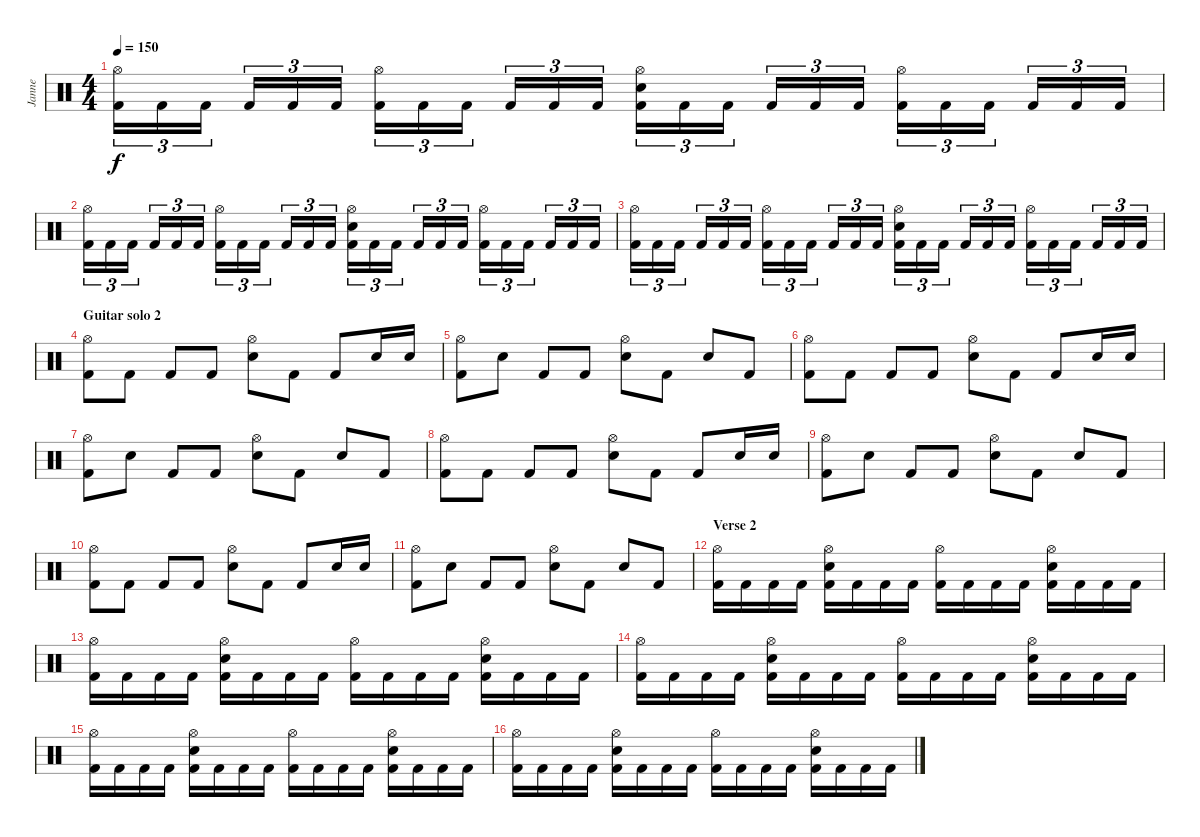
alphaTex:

\track ("Janne" "Janne") {instrument percussion}
\staff {score}
\articulation defaults
\ts (4 4)
\tempo 150
\clef neutral
\ks c
("Hi-Hat (open)" "Kick (hit) 2").16{tu (3 2) dy f} "Kick (hit) 2".16{tu (3 2)} "Kick (hit) 2".16{tu (3 2)} "Kick (hit) 2".16{tu (3 2)} "Kick (hit) 2".16{tu (3 2)} "Kick (hit) 2".16{tu (3 2)} ("Hi-Hat (open)" "Kick (hit) 2").16{tu (3 2)} "Kick (hit) 2".16{tu (3 2)} "Kick (hit) 2".16{tu (3 2)} "Kick (hit) 2".16{tu (3 2)} "Kick (hit) 2".16{tu (3 2)} "Kick (hit) 2".16{tu (3 2)} ("Hi-Hat (open)" "Electric Snare (hit)" "Kick (hit) 2").16{tu (3 2)} "Kick (hit) 2".16{tu (3 2)} "Kick (hit) 2".16{tu (3 2)} "Kick (hit) 2".16{tu (3 2)} "Kick (hit) 2".16{tu (3 2)} "Kick (hit) 2".16{tu (3 2)} ("Hi-Hat (open)" "Kick (hit) 2").16{tu (3 2)} "Kick (hit) 2".16{tu (3 2)} "Kick (hit) 2".16{tu (3 2)} "Kick (hit) 2".16{tu (3 2)} "Kick (hit) 2".16{tu (3 2)} "Kick (hit) 2".16{tu (3 2)} |
("Hi-Hat (open)" "Kick (hit) 2").16{tu (3 2)} "Kick (hit) 2".16{tu (3 2)} "Kick (hit) 2".16{tu (3 2)} "Kick (hit) 2".16{tu (3 2)} "Kick (hit) 2".16{tu (3 2)} "Kick (hit) 2".16{tu (3 2)} ("Hi-Hat (open)" "Kick (hit) 2").16{tu (3 2)} "Kick (hit) 2".16{tu (3 2)} "Kick (hit) 2".16{tu (3 2)} "Kick (hit) 2".16{tu (3 2)} "Kick (hit) 2".16{tu (3 2)} "Kick (hit) 2".16{tu (3 2)} ("Hi-Hat (open)" "Electric Snare (hit)" "Kick (hit) 2").16{tu (3 2)} "Kick (hit) 2".16{tu (3 2)} "Kick (hit) 2".16{tu (3 2)} "Kick (hit) 2".16{tu (3 2)} "Kick (hit) 2".16{tu (3 2)} "Kick (hit) 2".16{tu (3 2)} ("Hi-Hat (open)" "Kick (hit) 2").16{tu (3 2)} "Kick (hit) 2".16{tu (3 2)} "Kick (hit) 2".16{tu (3 2)} "Kick (hit) 2".16{tu (3 2)} "Kick (hit) 2".16{tu (3 2)} "Kick (hit) 2".16{tu (3 2)} |
("Hi-Hat (open)" "Kick (hit) 2").16{tu (3 2)} "Kick (hit) 2".16{tu (3 2)} "Kick (hit) 2".16{tu (3 2)} "Kick (hit) 2".16{tu (3 2)} "Kick (hit) 2".16{tu (3 2)} "Kick (hit) 2".16{tu (3 2)} ("Hi-Hat (open)" "Kick (hit) 2").16{tu (3 2)} "Kick (hit) 2".16{tu (3 2)} "Kick (hit) 2".16{tu (3 2)} "Kick (hit) 2".16{tu (3 2)} "Kick (hit) 2".16{tu (3 2)} "Kick (hit) 2".16{tu (3 2)} ("Hi-Hat (open)" "Electric Snare (hit)" "Kick (hit) 2").16{tu (3 2)} "Kick (hit) 2".16{tu (3 2)} "Kick (hit) 2".16{tu (3 2)} "Kick (hit) 2".16{tu (3 2)} "Kick (hit) 2".16{tu (3 2)} "Kick (hit) 2".16{tu (3 2)} ("Hi-Hat (open)" "Kick (hit) 2").16{tu (3 2)} "Kick (hit) 2".16{tu (3 2)} "Kick (hit) 2".16{tu (3 2)} "Kick (hit) 2".16{tu (3 2)} "Kick (hit) 2".16{tu (3 2)} "Kick (hit) 2".16{tu (3 2)} |
\section ("" "Guitar solo 2")
("Hi-Hat (open)" "Kick (hit) 2").8 "Kick (hit) 2".8 "Kick (hit) 2".8 "Kick (hit) 2".8 ("Hi-Hat (open)" "Electric Snare (hit)").8 "Kick (hit) 2".8 "Kick (hit) 2".8 "Electric Snare (hit)".16 "Electric Snare (hit)".16 |
("Hi-Hat (open)" "Kick (hit) 2").8 "Electric Snare (hit)".8 "Kick (hit) 2".8 "Kick (hit) 2".8 ("Hi-Hat (open)" "Electric Snare (hit)").8 "Kick (hit) 2".8 "Electric Snare (hit)".8 "Kick (hit) 2".8 |
("Hi-Hat (open)" "Kick (hit) 2").8 "Kick (hit) 2".8 "Kick (hit) 2".8 "Kick (hit) 2".8 ("Hi-Hat (open)" "Electric Snare (hit)").8 "Kick (hit) 2".8 "Kick (hit) 2".8 "Electric Snare (hit)".16 "Electric Snare (hit)".16 |
("Hi-Hat (open)" "Kick (hit) 2").8 "Electric Snare (hit)".8 "Kick (hit) 2".8 "Kick (hit) 2".8 ("Hi-Hat (open)" "Electric Snare (hit)").8 "Kick (hit) 2".8 "Electric Snare (hit)".8 "Kick (hit) 2".8 |
("Hi-Hat (open)" "Kick (hit) 2").8 "Kick (hit) 2".8 "Kick (hit) 2".8 "Kick (hit) 2".8 ("Hi-Hat (open)" "Electric Snare (hit)").8 "Kick (hit) 2".8 "Kick (hit) 2".8 "Electric Snare (hit)".16 "Electric Snare (hit)".16 |
("Hi-Hat (open)" "Kick (hit) 2").8 "Electric Snare (hit)".8 "Kick (hit) 2".8 "Kick (hit) 2".8 ("Hi-Hat (open)" "Electric Snare (hit)").8 "Kick (hit) 2".8 "Electric Snare (hit)".8 "Kick (hit) 2".8 |
("Hi-Hat (open)" "Kick (hit) 2").8 "Kick (hit) 2".8 "Kick (hit) 2".8 "Kick (hit) 2".8 ("Hi-Hat (open)" "Electric Snare (hit)").8 "Kick (hit) 2".8 "Kick (hit) 2".8 "Electric Snare (hit)".16 "Electric Snare (hit)".16 |
("Hi-Hat (open)" "Kick (hit) 2").8 "Electric Snare (hit)".8 "Kick (hit) 2".8 "Kick (hit) 2".8 ("Hi-Hat (open)" "Electric Snare (hit)").8 "Kick (hit) 2".8 "Electric Snare (hit)".8 "Kick (hit) 2".8 |
\section ("" "Verse 2")
("Hi-Hat (open)" "Kick (hit) 2").16 "Kick (hit) 2".16 "Kick (hit) 2".16 "Kick (hit) 2".16 ("Hi-Hat (open)" "Electric Snare (hit)" "Kick (hit) 2").16 "Kick (hit) 2".16 "Kick (hit) 2".16 "Kick (hit) 2".16 ("Hi-Hat (open)" "Kick (hit) 2").16 "Kick (hit) 2".16 "Kick (hit) 2".16 "Kick (hit) 2".16 ("Hi-Hat (open)" "Electric Snare (hit)" "Kick (hit) 2").16 "Kick (hit) 2".16 "Kick (hit) 2".16 "Kick (hit) 2".16 |
("Hi-Hat (open)" "Kick (hit) 2").16 "Kick (hit) 2".16 "Kick (hit) 2".16 "Kick (hit) 2".16 ("Hi-Hat (open)" "Electric Snare (hit)" "Kick (hit) 2").16 "Kick (hit) 2".16 "Kick (hit) 2".16 "Kick (hit) 2".16 ("Hi-Hat (open)" "Kick (hit) 2").16 "Kick (hit) 2".16 "Kick (hit) 2".16 "Kick (hit) 2".16 ("Hi-Hat (open)" "Electric Snare (hit)" "Kick (hit) 2").16 "Kick (hit) 2".16 "Kick (hit) 2".16 "Kick (hit) 2".16 |
("Hi-Hat (open)" "Kick (hit) 2").16 "Kick (hit) 2".16 "Kick (hit) 2".16 "Kick (hit) 2".16 ("Hi-Hat (open)" "Electric Snare (hit)" "Kick (hit) 2").16 "Kick (hit) 2".16 "Kick (hit) 2".16 "Kick (hit) 2".16 ("Hi-Hat (open)" "Kick (hit) 2").16 "Kick (hit) 2".16 "Kick (hit) 2".16 "Kick (hit) 2".16 ("Hi-Hat (open)" "Electric Snare (hit)" "Kick (hit) 2").16 "Kick (hit) 2".16 "Kick (hit) 2".16 "Kick (hit) 2".16 |
("Hi-Hat (open)" "Kick (hit) 2").16 "Kick (hit) 2".16 "Kick (hit) 2".16 "Kick (hit) 2".16 ("Hi-Hat (open)" "Electric Snare (hit)" "Kick (hit) 2").16 "Kick (hit) 2".16 "Kick (hit) 2".16 "Kick (hit) 2".16 ("Hi-Hat (open)" "Kick (hit) 2").16 "Kick (hit) 2".16 "Kick (hit) 2".16 "Kick (hit) 2".16 ("Hi-Hat (open)" "Electric Snare (hit)" "Kick (hit) 2").16 "Kick (hit) 2".16 "Kick (hit) 2".16 "Kick (hit) 2".16 |
("Hi-Hat (open)" "Kick (hit) 2").16 "Kick (hit) 2".16 "Kick (hit) 2".16 "Kick (hit) 2".16 ("Hi-Hat (open)" "Electric Snare (hit)" "Kick (hit) 2").16 "Kick (hit) 2".16 "Kick (hit) 2".16 "Kick (hit) 2".16 ("Hi-Hat (open)" "Kick (hit) 2").16 "Kick (hit) 2".16 "Kick (hit) 2".16 "Kick (hit) 2".16 ("Hi-Hat (open)" "Electric Snare (hit)" "Kick (hit) 2").16 "Kick (hit) 2".16 "Kick (hit) 2".16 "Kick (hit) 2".16
